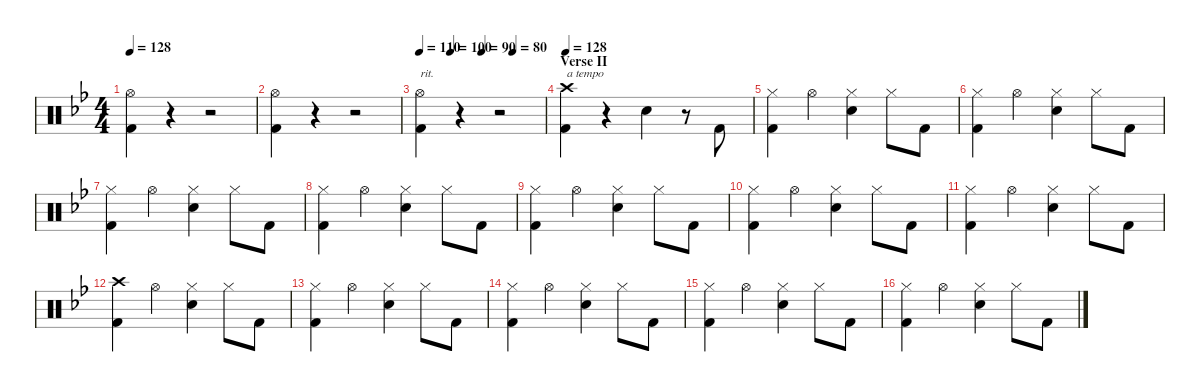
\defaultSystemsLayout 4
\hideDynamics
\bracketExtendMode groupsimilarinstruments
\singleTrackTrackNamePolicy hidden
\multiTrackTrackNamePolicy hidden
\firstSystemTrackNameMode fullname
\firstSystemTrackNameOrientation horizontal
\otherSystemsTrackNameOrientation horizontal
\extendBarLines
\track ("Drums" "drm.") {instrument percussion}
\staff {score}
\articulation defaults
\ts (4 4)
\tempo 128
\clef neutral
\ks bb
("Hi-Hat (open)"{acc forcenatural} "Kick (hit) 2"{acc forcenatural}).4{dy f beam Down} r.4{beam Down} r.2{beam Down} |
("Hi-Hat (open)"{acc forcenatural} "Kick (hit) 2"{acc forcenatural}).4{beam Down} r.4{beam Down} r.2{beam Down} |
\tempo 110
\tempo (100 0.25)
\tempo (90 0.5)
\tempo (80 0.75)
("Hi-Hat (open)"{acc forcenatural} "Kick (hit) 2"{acc forcenatural}).4{txt "rit." beam Down} r.4{beam Down} r.2{beam Down} |
\section ("" "Verse II")
\tempo 128
("Crash high (hit)"{acc forcenatural} "Kick (hit) 2"{acc forcenatural}).4{txt "a tempo" beam Down} r.4{beam Down} "Snare (hit) 2"{acc forcenatural}.4{beam Down} r.8{beam Down} "Kick (hit) 2"{acc forcenatural}.8{beam Up} |
("Hi-Hat (closed)"{acc forcenatural} "Kick (hit) 2"{acc forcenatural}).4{beam Down} "Hi-Hat (open)"{acc forcenatural}.4{beam Down} ("Hi-Hat (closed)"{acc forcenatural} "Snare (hit) 2"{acc forcenatural}).4{beam Down} "Hi-Hat (closed)"{acc forcenatural}.8{beam Down} "Kick (hit) 2"{acc forcenatural}.8{beam Down} |
("Hi-Hat (closed)"{acc forcenatural} "Kick (hit) 2"{acc forcenatural}).4{beam Down} "Hi-Hat (open)"{acc forcenatural}.4{beam Down} ("Hi-Hat (closed)"{acc forcenatural} "Snare (hit) 2"{acc forcenatural}).4{beam Down} "Hi-Hat (closed)"{acc forcenatural}.8{beam Down} "Kick (hit) 2"{acc forcenatural}.8{beam Down} |
("Hi-Hat (closed)"{acc forcenatural} "Kick (hit) 2"{acc forcenatural}).4{beam Down} "Hi-Hat (open)"{acc forcenatural}.4{beam Down} ("Hi-Hat (closed)"{acc forcenatural} "Snare (hit) 2"{acc forcenatural}).4{beam Down} "Hi-Hat (closed)"{acc forcenatural}.8{beam Down} "Kick (hit) 2"{acc forcenatural}.8{beam Down} |
("Hi-Hat (closed)"{acc forcenatural} "Kick (hit) 2"{acc forcenatural}).4{beam Down} "Hi-Hat (open)"{acc forcenatural}.4{beam Down} ("Hi-Hat (closed)"{acc forcenatural} "Snare (hit) 2"{acc forcenatural}).4{beam Down} "Hi-Hat (closed)"{acc forcenatural}.8{beam Down} "Kick (hit) 2"{acc forcenatural}.8{beam Down} |
("Hi-Hat (closed)"{acc forcenatural} "Kick (hit) 2"{acc forcenatural}).4{beam Down} "Hi-Hat (open)"{acc forcenatural}.4{beam Down} ("Hi-Hat (closed)"{acc forcenatural} "Snare (hit) 2"{acc forcenatural}).4{beam Down} "Hi-Hat (closed)"{acc forcenatural}.8{beam Down} "Kick (hit) 2"{acc forcenatural}.8{beam Down} |
("Hi-Hat (closed)"{acc forcenatural} "Kick (hit) 2"{acc forcenatural}).4{beam Down} "Hi-Hat (open)"{acc forcenatural}.4{beam Down} ("Hi-Hat (closed)"{acc forcenatural} "Snare (hit) 2"{acc forcenatural}).4{beam Down} "Hi-Hat (closed)"{acc forcenatural}.8{beam Down} "Kick (hit) 2"{acc forcenatural}.8{beam Down} |
("Hi-Hat (closed)"{acc forcenatural} "Kick (hit) 2"{acc forcenatural}).4{beam Down} "Hi-Hat (open)"{acc forcenatural}.4{beam Down} ("Hi-Hat (closed)"{acc forcenatural} "Snare (hit) 2"{acc forcenatural}).4{beam Down} "Hi-Hat (closed)"{acc forcenatural}.8{beam Down} "Kick (hit) 2"{acc forcenatural}.8{beam Down} |
("Crash high (hit)"{acc forcenatural} "Kick (hit) 2"{acc forcenatural}).4{beam Down} "Hi-Hat (open)"{acc forcenatural}.4{beam Down} ("Hi-Hat (closed)"{acc forcenatural} "Snare (hit) 2"{acc forcenatural}).4{beam Down} "Hi-Hat (closed)"{acc forcenatural}.8{beam Down} "Kick (hit) 2"{acc forcenatural}.8{beam Down} |
("Hi-Hat (closed)"{acc forcenatural} "Kick (hit) 2"{acc forcenatural}).4{beam Down} "Hi-Hat (open)"{acc forcenatural}.4{beam Down} ("Hi-Hat (closed)"{acc forcenatural} "Snare (hit) 2"{acc forcenatural}).4{beam Down} "Hi-Hat (closed)"{acc forcenatural}.8{beam Down} "Kick (hit) 2"{acc forcenatural}.8{beam Down} |
("Hi-Hat (closed)"{acc forcenatural} "Kick (hit) 2"{acc forcenatural}).4{beam Down} "Hi-Hat (open)"{acc forcenatural}.4{beam Down} ("Hi-Hat (closed)"{acc forcenatural} "Snare (hit) 2"{acc forcenatural}).4{beam Down} "Hi-Hat (closed)"{acc forcenatural}.8{beam Down} "Kick (hit) 2"{acc forcenatural}.8{beam Down} |
("Hi-Hat (closed)"{acc forcenatural} "Kick (hit) 2"{acc forcenatural}).4{beam Down} "Hi-Hat (open)"{acc forcenatural}.4{beam Down} ("Hi-Hat (closed)"{acc forcenatural} "Snare (hit) 2"{acc forcenatural}).4{beam Down} "Hi-Hat (closed)"{acc forcenatural}.8{beam Down} "Kick (hit) 2"{acc forcenatural}.8{beam Down} |
("Hi-Hat (closed)"{acc forcenatural} "Kick (hit) 2"{acc forcenatural}).4{beam Down} "Hi-Hat (open)"{acc forcenatural}.4{beam Down} ("Hi-Hat (closed)"{acc forcenatural} "Snare (hit) 2"{acc forcenatural}).4{beam Down} "Hi-Hat (closed)"{acc forcenatural}.8{beam Down} "Kick (hit) 2"{acc forcenatural}.8{beam Down}
